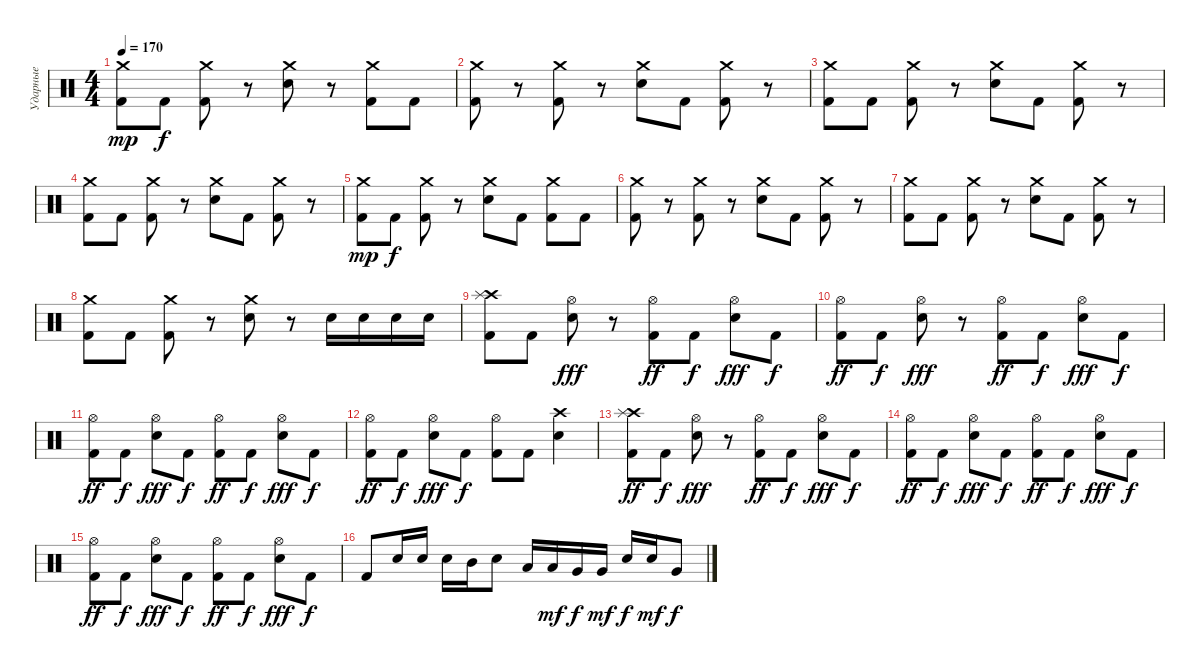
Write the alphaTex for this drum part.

\track ("Ударные" "Ударные") {instrument percussion}
\staff {score}
\articulation defaults
\ts (4 4)
\tempo 170
\clef neutral
\ks c
("Crash medium (hit)" "Kick (hit) 2").8{dy mp} "Kick (hit) 2".8{dy f} ("Crash medium (hit)" "Kick (hit) 2").8 r.8 ("Crash medium (hit)" "Electric Snare (hit)").8 r.8 ("Crash medium (hit)" "Kick (hit) 2").8 "Kick (hit) 2".8 |
("Crash medium (hit)" "Kick (hit) 2").8 r.8 ("Crash medium (hit)" "Kick (hit) 2").8 r.8 ("Crash medium (hit)" "Electric Snare (hit)").8 "Kick (hit) 2".8 ("Crash medium (hit)" "Kick (hit) 2").8 r.8 |
("Crash medium (hit)" "Kick (hit) 2").8 "Kick (hit) 2".8 ("Crash medium (hit)" "Kick (hit) 2").8 r.8 ("Crash medium (hit)" "Electric Snare (hit)").8 "Kick (hit) 2".8 ("Crash medium (hit)" "Kick (hit) 2").8 r.8 |
("Crash medium (hit)" "Kick (hit) 2").8 "Kick (hit) 2".8 ("Crash medium (hit)" "Kick (hit) 2").8 r.8 ("Crash medium (hit)" "Electric Snare (hit)").8 "Kick (hit) 2".8 ("Crash medium (hit)" "Kick (hit) 2").8 r.8 |
("Crash medium (hit)" "Kick (hit) 2").8{dy mp} "Kick (hit) 2".8{dy f} ("Crash medium (hit)" "Kick (hit) 2").8 r.8 ("Crash medium (hit)" "Electric Snare (hit)").8 "Kick (hit) 2".8 ("Crash medium (hit)" "Kick (hit) 2").8 "Kick (hit) 2".8 |
("Crash medium (hit)" "Kick (hit) 2").8 r.8 ("Crash medium (hit)" "Kick (hit) 2").8 r.8 ("Crash medium (hit)" "Electric Snare (hit)").8 "Kick (hit) 2".8 ("Crash medium (hit)" "Kick (hit) 2").8 r.8 |
("Crash medium (hit)" "Kick (hit) 2").8 "Kick (hit) 2".8 ("Crash medium (hit)" "Kick (hit) 2").8 r.8 ("Crash medium (hit)" "Electric Snare (hit)").8 "Kick (hit) 2".8 ("Crash medium (hit)" "Kick (hit) 2").8 r.8 |
("Crash medium (hit)" "Kick (hit) 2").8 "Kick (hit) 2".8 ("Crash medium (hit)" "Kick (hit) 2").8 r.8 ("Crash medium (hit)" "Electric Snare (hit)").8 r.8 "Electric Snare (hit)".16 "Electric Snare (hit)".16 "Electric Snare (hit)".16 "Electric Snare (hit)".16 |
("Crash high (hit)" "Splash (hit)" "Kick (hit) 2").8 "Kick (hit) 2".8 ("Hi-Hat (open)" "Electric Snare (hit)").8{dy fff} r.8 ("Hi-Hat (open)" "Kick (hit) 2").8{dy ff} "Kick (hit) 2".8{dy f} ("Hi-Hat (open)" "Electric Snare (hit)").8{dy fff} "Kick (hit) 2".8{dy f} |
("Hi-Hat (open)" "Kick (hit) 2").8{dy ff} "Kick (hit) 2".8{dy f} ("Hi-Hat (open)" "Electric Snare (hit)").8{dy fff} r.8 ("Hi-Hat (open)" "Kick (hit) 2").8{dy ff} "Kick (hit) 2".8{dy f} ("Hi-Hat (open)" "Electric Snare (hit)").8{dy fff} "Kick (hit) 2".8{dy f} |
("Hi-Hat (open)" "Kick (hit) 2").8{dy ff} "Kick (hit) 2".8{dy f} ("Hi-Hat (open)" "Electric Snare (hit)").8{dy fff} "Kick (hit) 2".8{dy f} ("Hi-Hat (open)" "Kick (hit) 2").8{dy ff} "Kick (hit) 2".8{dy f} ("Hi-Hat (open)" "Electric Snare (hit)").8{dy fff} "Kick (hit) 2".8{dy f} |
("Hi-Hat (open)" "Kick (hit) 2").8{dy ff} "Kick (hit) 2".8{dy f} ("Hi-Hat (open)" "Electric Snare (hit)").8{dy fff} "Kick (hit) 2".8{dy f} ("Hi-Hat (open)" "Kick (hit) 2").8 "Kick (hit) 2".8 ("Crash high (hit)" "Electric Snare (hit)").4 |
("Crash high (hit)" "Splash (hit)" "Kick (hit) 2").8{dy ff} "Kick (hit) 2".8{dy f} ("Hi-Hat (open)" "Electric Snare (hit)").8{dy fff} r.8 ("Hi-Hat (open)" "Kick (hit) 2").8{dy ff} "Kick (hit) 2".8{dy f} ("Hi-Hat (open)" "Electric Snare (hit)").8{dy fff} "Kick (hit) 2".8{dy f} |
("Hi-Hat (open)" "Kick (hit) 2").8{dy ff} "Kick (hit) 2".8{dy f} ("Hi-Hat (open)" "Electric Snare (hit)").8{dy fff} "Kick (hit) 2".8{dy f} ("Hi-Hat (open)" "Kick (hit) 2").8{dy ff} "Kick (hit) 2".8{dy f} ("Hi-Hat (open)" "Electric Snare (hit)").8{dy fff} "Kick (hit) 2".8{dy f} |
("Hi-Hat (open)" "Kick (hit) 2").8{dy ff} "Kick (hit) 2".8{dy f} ("Hi-Hat (open)" "Electric Snare (hit)").8{dy fff} "Kick (hit) 2".8{dy f} ("Hi-Hat (open)" "Kick (hit) 2").8{dy ff} "Kick (hit) 2".8{dy f} ("Hi-Hat (open)" "Electric Snare (hit)").8{dy fff} "Kick (hit) 2".8{dy f} |
"Kick (hit) 2".8 "Electric Snare (hit)".16 "Electric Snare (hit)".16 "Electric Snare (hit)".16 "Mid Tom (hit)".16 "Electric Snare (hit)".8 "Low Tom (hit)".16 "Low Tom (hit)".16{dy mf} "Very Low Tom (hit)".16{dy f} "Very Low Tom (hit)".16{dy mf} "Electric Snare (hit)".16{dy f} "Electric Snare (hit)".16{dy mf} "Very Low Tom (hit)".8{dy f}
